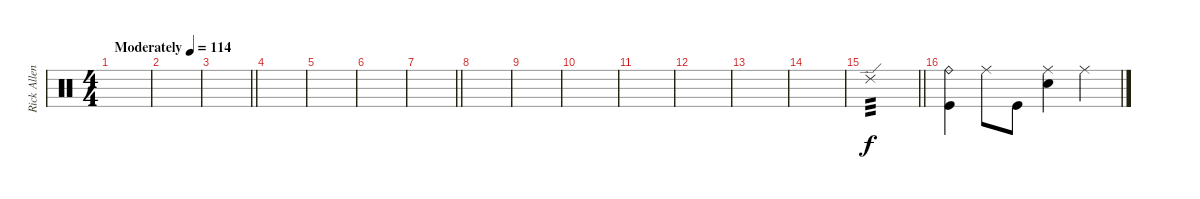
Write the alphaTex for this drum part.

\track ("Rick Allen" "Rick Allen") {instrument percussion}
\staff {score}
\articulation defaults
\ts (4 4)
\tempo (114 "Moderately")
\clef neutral
\ks c
|
|
\barLineRight lightlight
|
|
|
|
\barLineRight lightlight
|
|
|
|
|
|
|
|
\barLineRight lightlight "Ride (edge) 2".1{tp 3}
|
("Ride (bell)" "Kick (hit)").4 "Ride (middle)".8 "Kick (hit)".8 ("Ride (middle)" "Snare (hit) 2").4 "Ride (middle)".4
